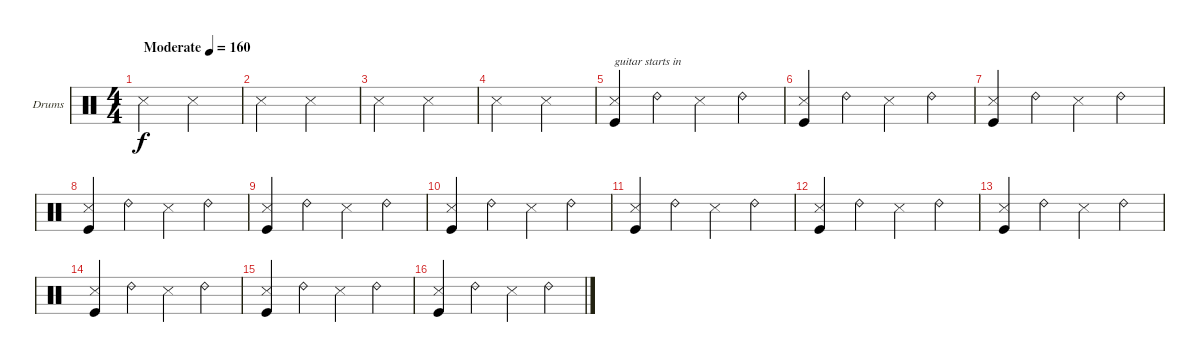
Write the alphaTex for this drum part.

\bracketExtendMode nobrackets
\firstSystemTrackNameOrientation horizontal
\otherSystemsTrackNameOrientation horizontal
\track ("Drumkit" "Drums") {instrument percussion}
\staff {score}
\articulation defaults
\ts (4 4)
\beaming (8 2 2 2 2)
\tempo (160 "Moderate")
\clef neutral
\ks c "Snare (side stick) 3".2{dy f} "Snare (side stick) 3".2
|
"Snare (side stick) 3".2 "Snare (side stick) 3".2 |
"Snare (side stick) 3".2 "Snare (side stick) 3".2 |
"Snare (side stick) 3".2 "Snare (side stick) 3".2 |
("Snare (side stick) 3" "Kick (hit)").4{txt "guitar starts in"} "Ride (bell) 2".4 "Snare (side stick) 3".4 "Ride (bell) 2".4 |
("Snare (side stick) 3" "Kick (hit)").4 "Ride (bell) 2".4 "Snare (side stick) 3".4 "Ride (bell) 2".4 |
("Snare (side stick) 3" "Kick (hit)").4 "Ride (bell) 2".4 "Snare (side stick) 3".4 "Ride (bell) 2".4 |
("Snare (side stick) 3" "Kick (hit)").4 "Ride (bell) 2".4 "Snare (side stick) 3".4 "Ride (bell) 2".4 |
("Snare (side stick) 3" "Kick (hit)").4 "Ride (bell) 2".4 "Snare (side stick) 3".4 "Ride (bell) 2".4 |
("Snare (side stick) 3" "Kick (hit)").4 "Ride (bell) 2".4 "Snare (side stick) 3".4 "Ride (bell) 2".4 |
("Snare (side stick) 3" "Kick (hit)").4 "Ride (bell) 2".4 "Snare (side stick) 3".4 "Ride (bell) 2".4 |
("Snare (side stick) 3" "Kick (hit)").4 "Ride (bell) 2".4 "Snare (side stick) 3".4 "Ride (bell) 2".4 |
("Snare (side stick) 3" "Kick (hit)").4 "Ride (bell) 2".4 "Snare (side stick) 3".4 "Ride (bell) 2".4 |
("Snare (side stick) 3" "Kick (hit)").4 "Ride (bell) 2".4 "Snare (side stick) 3".4 "Ride (bell) 2".4 |
("Snare (side stick) 3" "Kick (hit)").4 "Ride (bell) 2".4 "Snare (side stick) 3".4 "Ride (bell) 2".4 |
("Snare (side stick) 3" "Kick (hit)").4 "Ride (bell) 2".4 "Snare (side stick) 3".4 "Ride (bell) 2".4
